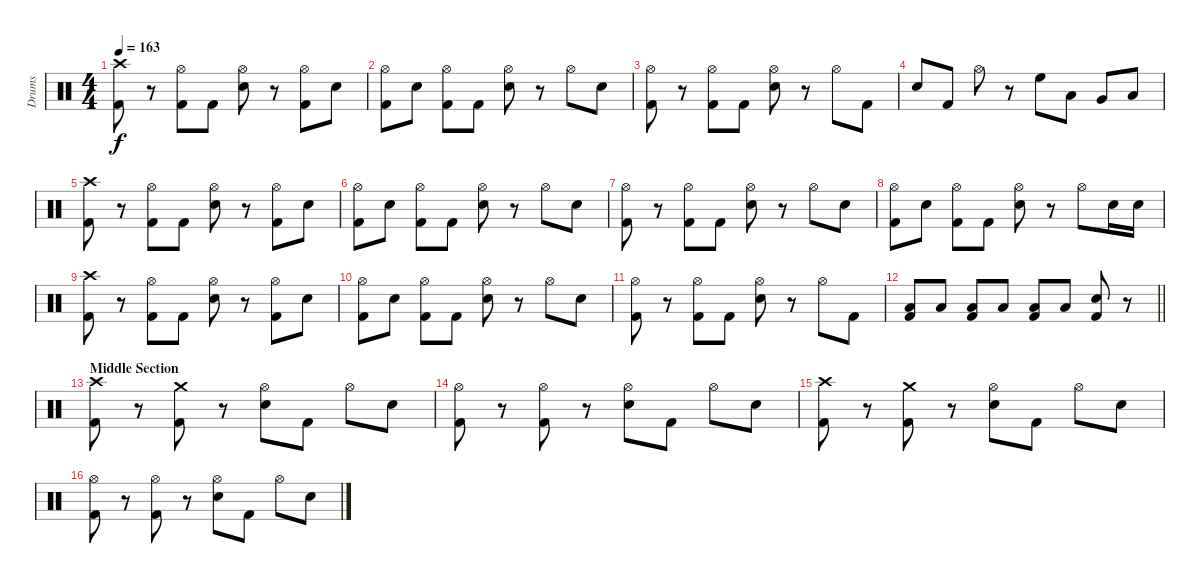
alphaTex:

\track ("Drums" "Drums") {instrument percussion}
\staff {score}
\articulation defaults
\ts (4 4)
\tempo 163
\clef neutral
\ks c
("Crash high (hit)" "Kick (hit) 2").8{dy f} r.8 ("Hi-Hat (open)" "Kick (hit) 2").8 "Kick (hit) 2".8 ("Hi-Hat (open)" "Snare (hit) 2").8 r.8 ("Hi-Hat (open)" "Kick (hit) 2").8 "Snare (hit) 2".8 |
("Hi-Hat (open)" "Kick (hit) 2").8 "Snare (hit) 2".8 ("Hi-Hat (open)" "Kick (hit) 2").8 "Kick (hit) 2".8 ("Hi-Hat (open)" "Snare (hit) 2").8 r.8 "Hi-Hat (open)".8 "Snare (hit) 2".8 |
("Hi-Hat (open)" "Kick (hit) 2").8 r.8 ("Hi-Hat (open)" "Kick (hit) 2").8 "Kick (hit) 2".8 ("Hi-Hat (open)" "Snare (hit) 2").8 r.8 "Hi-Hat (open)".8 "Kick (hit) 2".8 |
"Snare (hit) 2".8 "Kick (hit) 2".8 "Hi-Hat (open)".8 r.8 "High Floor Tom (hit)".8 "Low Tom (hit)".8 "Very Low Tom (hit)".8 "Low Floor Tom (hit)".8 |
("Crash high (hit)" "Kick (hit) 2").8 r.8 ("Hi-Hat (open)" "Kick (hit) 2").8 "Kick (hit) 2".8 ("Hi-Hat (open)" "Snare (hit) 2").8 r.8 ("Hi-Hat (open)" "Kick (hit) 2").8 "Snare (hit) 2".8 |
("Hi-Hat (open)" "Kick (hit) 2").8 "Snare (hit) 2".8 ("Hi-Hat (open)" "Kick (hit) 2").8 "Kick (hit) 2".8 ("Hi-Hat (open)" "Snare (hit) 2").8 r.8 "Hi-Hat (open)".8 "Snare (hit) 2".8 |
("Hi-Hat (open)" "Kick (hit) 2").8 r.8 ("Hi-Hat (open)" "Kick (hit) 2").8 "Kick (hit) 2".8 ("Hi-Hat (open)" "Snare (hit) 2").8 r.8 "Hi-Hat (open)".8 "Snare (hit) 2".8 |
("Hi-Hat (open)" "Kick (hit) 2").8 "Snare (hit) 2".8 ("Hi-Hat (open)" "Kick (hit) 2").8 "Kick (hit) 2".8 ("Hi-Hat (open)" "Snare (hit) 2").8 r.8 "Hi-Hat (open)".8 "Snare (hit) 2".16 "Snare (hit) 2".16 |
("Crash high (hit)" "Kick (hit) 2").8 r.8 ("Hi-Hat (open)" "Kick (hit) 2").8 "Kick (hit) 2".8 ("Hi-Hat (open)" "Snare (hit) 2").8 r.8 ("Hi-Hat (open)" "Kick (hit) 2").8 "Snare (hit) 2".8 |
("Hi-Hat (open)" "Kick (hit) 2").8 "Snare (hit) 2".8 ("Hi-Hat (open)" "Kick (hit) 2").8 "Kick (hit) 2".8 ("Hi-Hat (open)" "Snare (hit) 2").8 r.8 "Hi-Hat (open)".8 "Snare (hit) 2".8 |
("Hi-Hat (open)" "Kick (hit) 2").8 r.8 ("Hi-Hat (open)" "Kick (hit) 2").8 "Kick (hit) 2".8 ("Hi-Hat (open)" "Snare (hit) 2").8 r.8 "Hi-Hat (open)".8 "Kick (hit) 2".8 |
\barLineRight lightlight
("Low Tom (hit)" "Kick (hit) 2").8 "Low Tom (hit)".8 ("Low Tom (hit)" "Kick (hit) 2").8 "Low Tom (hit)".8 ("Low Tom (hit)" "Kick (hit) 2").8 "Low Tom (hit)".8 ("Snare (hit) 2" "Kick (hit) 2").8 r.8 |
\section ("" "Middle Section")
("Crash high (hit)" "Kick (hit) 2").8 r.8 ("Crash medium (hit)" "Kick (hit) 2").8 r.8 ("Hi-Hat (open)" "Snare (hit) 2").8 "Kick (hit) 2".8 "Hi-Hat (open)".8 "Snare (hit) 2".8 |
("Hi-Hat (open)" "Kick (hit) 2").8 r.8 ("Hi-Hat (open)" "Kick (hit) 2").8 r.8 ("Hi-Hat (open)" "Snare (hit) 2").8 "Kick (hit) 2".8 "Hi-Hat (open)".8 "Snare (hit) 2".8 |
("Crash high (hit)" "Kick (hit) 2").8 r.8 ("Crash medium (hit)" "Kick (hit) 2").8 r.8 ("Hi-Hat (open)" "Snare (hit) 2").8 "Kick (hit) 2".8 "Hi-Hat (open)".8 "Snare (hit) 2".8 |
("Hi-Hat (open)" "Kick (hit) 2").8 r.8 ("Hi-Hat (open)" "Kick (hit) 2").8 r.8 ("Hi-Hat (open)" "Snare (hit) 2").8 "Kick (hit) 2".8 "Hi-Hat (open)".8 "Snare (hit) 2".8
